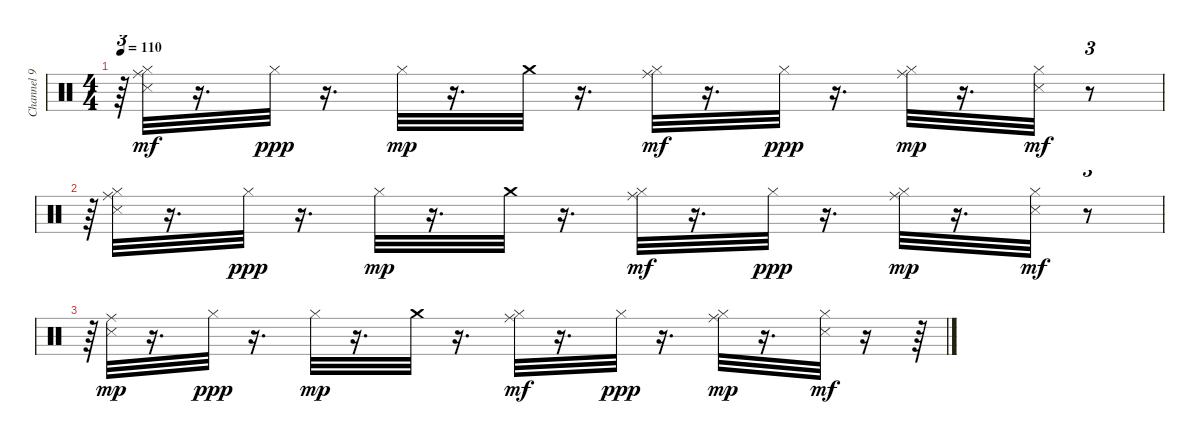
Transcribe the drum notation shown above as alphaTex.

\track ("Channel 9" "Channel 9") {instrument percussion}
\staff {score}
\articulation defaults
\ts (4 4)
\tempo 110
\clef neutral
\ks c
r.64{tu (3 2) dy mf} ("Ride (middle)" "Hi-Hat (closed)" "Metronome (hit)").32 r.16{d} "Hi-Hat (closed)".32{dy ppp} r.16{d} "Hi-Hat (closed)".32{dy mp} r.16{d} "Crash medium (hit)".32 r.16{d} ("Ride (middle)" "Hi-Hat (closed)").32{dy mf} r.16{d} "Hi-Hat (closed)".32{dy ppp} r.16{d} ("Ride (middle)" "Hi-Hat (closed)").32{dy mp} r.16{d} ("Hi-Hat (closed)" "Metronome (hit)").32{dy mf} r.8{tu (3 2)} |
r.64{tu (3 2)} ("Ride (middle)" "Hi-Hat (closed)" "Metronome (hit)").32 r.16{d} "Hi-Hat (closed)".32{dy ppp} r.16{d} "Hi-Hat (closed)".32{dy mp} r.16{d} "Crash medium (hit)".32 r.16{d} ("Ride (middle)" "Hi-Hat (closed)").32{dy mf} r.16{d} "Hi-Hat (closed)".32{dy ppp} r.16{d} ("Ride (middle)" "Hi-Hat (closed)").32{dy mp} r.16{d} ("Hi-Hat (closed)" "Metronome (hit)").32{dy mf} r.8{tu (3 2)} |
r.64{tu (3 2)} ("Metronome (hit)" "Ride (middle)").32{dy mp} r.16{d} "Hi-Hat (closed)".32{dy ppp} r.16{d} "Hi-Hat (closed)".32{dy mp} r.16{d} "Crash medium (hit)".32 r.16{d} ("Ride (middle)" "Hi-Hat (closed)").32{dy mf} r.16{d} "Hi-Hat (closed)".32{dy ppp} r.16{d} ("Ride (middle)" "Hi-Hat (closed)").32{dy mp} r.16{d} ("Hi-Hat (closed)" "Metronome (hit)").32{dy mf} r.16 r.64
